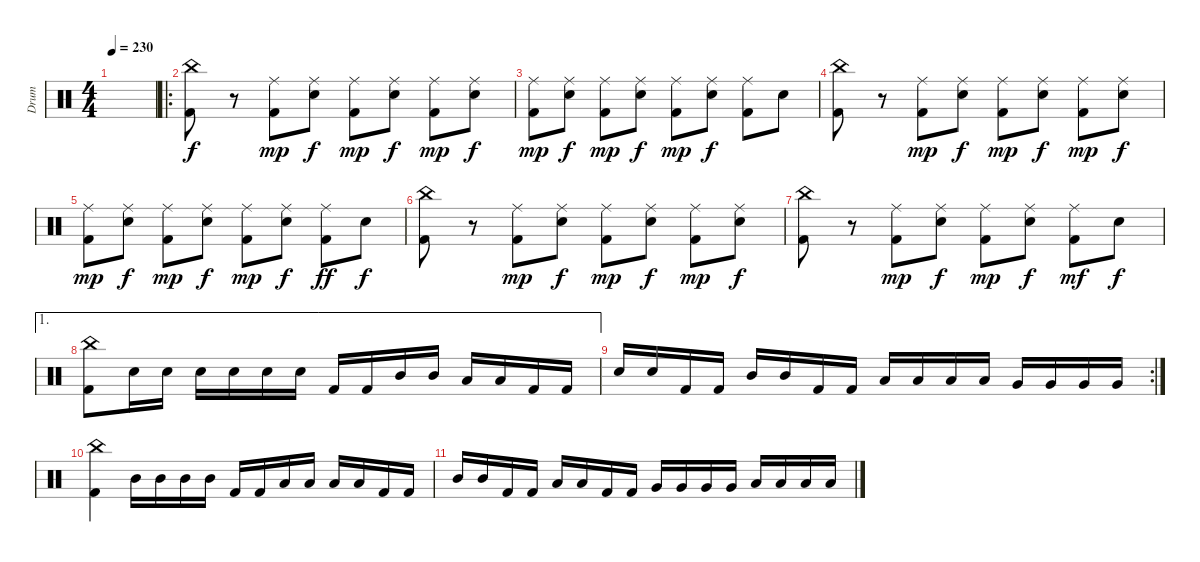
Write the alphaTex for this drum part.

\track ("Drum" "Drum") {instrument percussion}
\staff {score}
\articulation defaults
\ts (4 4)
\tempo 230
\clef neutral
\ks c
|
\ro
("China (hit)" "Kick (hit) 2").8 r.8 ("Ride (middle)" "Kick (hit) 2").8{dy mp} ("Ride (middle)" "Electric Snare (hit)").8{dy f} ("Ride (middle)" "Kick (hit) 2").8{dy mp} ("Ride (middle)" "Electric Snare (hit)").8{dy f} ("Ride (middle)" "Kick (hit) 2").8{dy mp} ("Ride (middle)" "Electric Snare (hit)").8{dy f} |
("Ride (middle)" "Kick (hit) 2").8{dy mp} ("Ride (middle)" "Electric Snare (hit)").8{dy f} ("Ride (middle)" "Kick (hit) 2").8{dy mp} ("Ride (middle)" "Electric Snare (hit)").8{dy f} ("Ride (middle)" "Kick (hit) 2").8{dy mp} ("Ride (middle)" "Electric Snare (hit)").8{dy f} ("Ride (middle)" "Kick (hit) 2").8 "Electric Snare (hit)".8 |
("China (hit)" "Kick (hit) 2").8 r.8 ("Ride (middle)" "Kick (hit) 2").8{dy mp} ("Ride (middle)" "Electric Snare (hit)").8{dy f} ("Ride (middle)" "Kick (hit) 2").8{dy mp} ("Ride (middle)" "Electric Snare (hit)").8{dy f} ("Ride (middle)" "Kick (hit) 2").8{dy mp} ("Ride (middle)" "Electric Snare (hit)").8{dy f} |
("Ride (middle)" "Kick (hit) 2").8{dy mp} ("Ride (middle)" "Electric Snare (hit)").8{dy f} ("Ride (middle)" "Kick (hit) 2").8{dy mp} ("Ride (middle)" "Electric Snare (hit)").8{dy f} ("Ride (middle)" "Kick (hit) 2").8{dy mp} ("Ride (middle)" "Electric Snare (hit)").8{dy f} ("Ride (middle)" "Kick (hit) 2").8{dy ff} "Electric Snare (hit)".8{dy f} |
("China (hit)" "Kick (hit) 2").8 r.8 ("Ride (middle)" "Kick (hit) 2").8{dy mp} ("Ride (middle)" "Electric Snare (hit)").8{dy f} ("Ride (middle)" "Kick (hit) 2").8{dy mp} ("Ride (middle)" "Electric Snare (hit)").8{dy f} ("Ride (middle)" "Kick (hit) 2").8{dy mp} ("Ride (middle)" "Electric Snare (hit)").8{dy f} |
("China (hit)" "Kick (hit) 2").8 r.8 ("Ride (middle)" "Kick (hit) 2").8{dy mp} ("Ride (middle)" "Electric Snare (hit)").8{dy f} ("Ride (middle)" "Kick (hit) 2").8{dy mp} ("Ride (middle)" "Electric Snare (hit)").8{dy f} ("Ride (middle)" "Kick (hit) 2").8{dy mf} "Electric Snare (hit)".8{dy f} |
\ae 1
("China (hit)" "Kick (hit) 2").8 "Electric Snare (hit)".16 "Electric Snare (hit)".16 "Electric Snare (hit)".16 "Electric Snare (hit)".16 "Electric Snare (hit)".16 "Electric Snare (hit)".16 "Kick (hit) 2".16 "Kick (hit) 2".16 "Mid Tom (hit)".16 "Mid Tom (hit)".16 "Low Tom (hit)".16 "Low Tom (hit)".16 "Kick (hit) 2".16 "Kick (hit) 2".16 |
\rc 2 "Electric Snare (hit)".16 "Electric Snare (hit)".16 "Kick (hit) 2".16 "Kick (hit) 2".16 "Mid Tom (hit)".16 "Mid Tom (hit)".16 "Kick (hit) 2".16 "Kick (hit) 2".16 "Low Tom (hit)".16 "Low Tom (hit)".16 "Low Tom (hit)".16 "Low Tom (hit)".16 "Very Low Tom (hit)".16 "Very Low Tom (hit)".16 "Very Low Tom (hit)".16 "Very Low Tom (hit)".16
|
("China (hit)" "Kick (hit) 2").4 "Mid Tom (hit)".16 "Mid Tom (hit)".16 "Mid Tom (hit)".16 "Mid Tom (hit)".16 "Kick (hit) 2".16 "Kick (hit) 2".16 "Low Tom (hit)".16 "Low Tom (hit)".16 "Low Tom (hit)".16 "Low Tom (hit)".16 "Kick (hit) 2".16 "Kick (hit) 2".16 |
"Mid Tom (hit)".16 "Mid Tom (hit)".16 "Kick (hit) 2".16 "Kick (hit) 2".16 "Low Tom (hit)".16 "Low Tom (hit)".16 "Kick (hit) 2".16 "Kick (hit) 2".16 "Very Low Tom (hit)".16 "Very Low Tom (hit)".16 "Very Low Tom (hit)".16 "Very Low Tom (hit)".16 "Low Floor Tom (hit)".16 "Low Floor Tom (hit)".16 "Low Floor Tom (hit)".16 "Low Floor Tom (hit)".16
